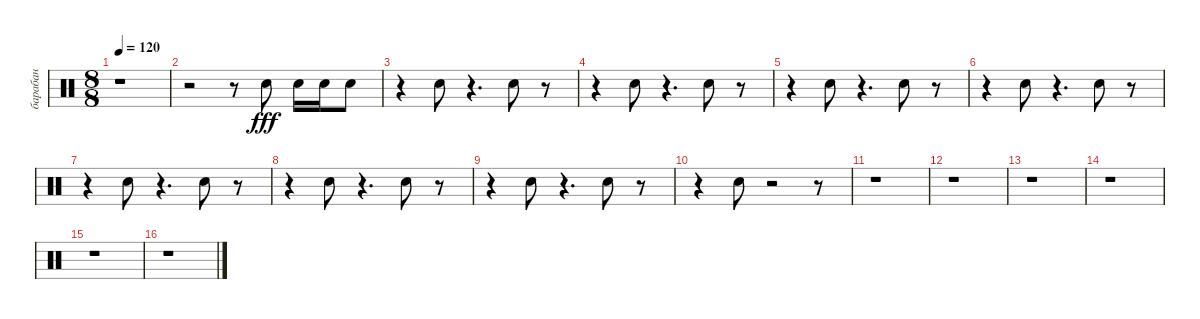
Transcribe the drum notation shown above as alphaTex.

\track ("барабан" "барабан") {instrument percussion}
\staff {score}
\articulation defaults
\ts (8 8)
\tempo 120
\clef neutral
\ks c
r.1{dy fff} |
r.2 r.8 "Snare (hit) 2".8 "Snare (hit) 2".16 "Snare (hit) 2".16 "Snare (hit) 2".8 |
r.4 "Snare (hit) 2".8 r.4{d} "Snare (hit) 2".8 r.8 |
r.4 "Snare (hit) 2".8 r.4{d} "Snare (hit) 2".8 r.8 |
r.4 "Snare (hit) 2".8 r.4{d} "Snare (hit) 2".8 r.8 |
r.4 "Snare (hit) 2".8 r.4{d} "Snare (hit) 2".8 r.8 |
r.4 "Snare (hit) 2".8 r.4{d} "Snare (hit) 2".8 r.8 |
r.4 "Snare (hit) 2".8 r.4{d} "Snare (hit) 2".8 r.8 |
r.4 "Snare (hit) 2".8 r.4{d} "Snare (hit) 2".8 r.8 |
r.4 "Snare (hit) 2".8 r.2 r.8 |
r.1 |
r.1 |
r.1 |
r.1 |
r.1 |
r.1
